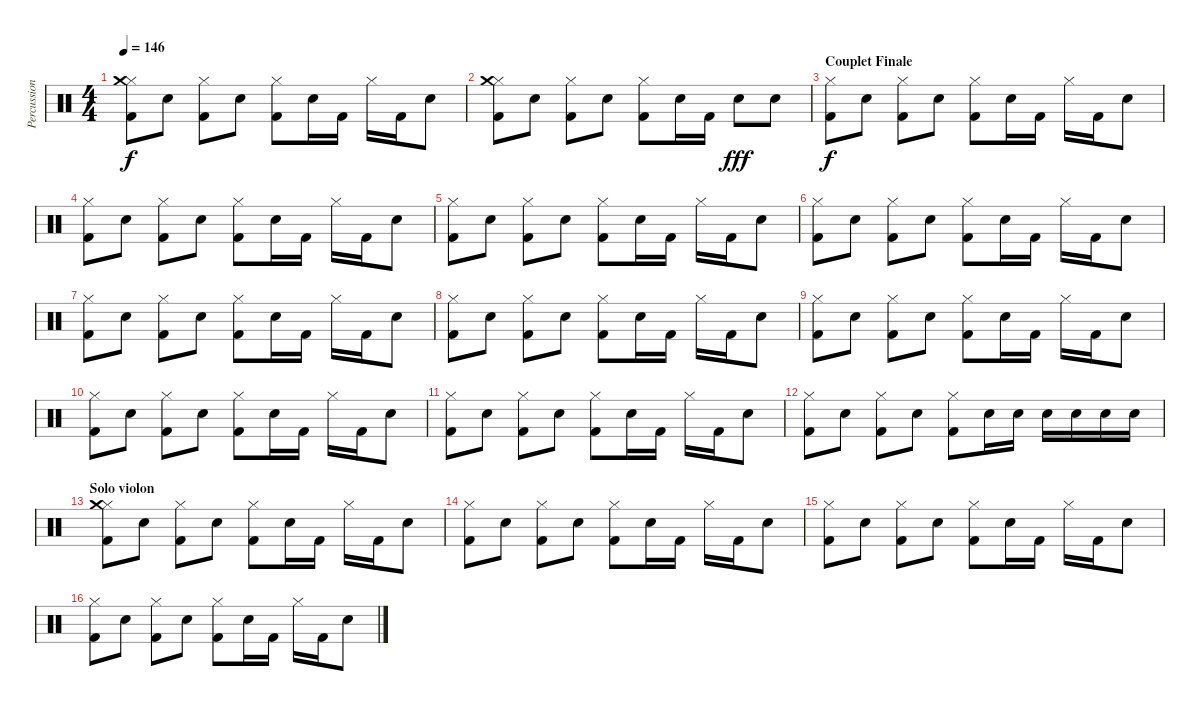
\track ("Percussions" "Percussion") {instrument percussion}
\staff {score}
\articulation defaults
\ts (4 4)
\tempo 146
\clef neutral
\ks c
("Hi-Hat (closed)" "Crash medium (hit)" "Kick (hit) 2").8{dy f} "Electric Snare (hit)".8 ("Hi-Hat (closed)" "Kick (hit) 2").8 "Electric Snare (hit)".8 ("Hi-Hat (closed)" "Kick (hit) 2").8 "Electric Snare (hit)".16 "Kick (hit) 2".16 "Hi-Hat (closed)".16 "Kick (hit) 2".16 "Electric Snare (hit)".8 |
("Hi-Hat (closed)" "Crash medium (hit)" "Kick (hit) 2").8 "Electric Snare (hit)".8 ("Hi-Hat (closed)" "Kick (hit) 2").8 "Electric Snare (hit)".8 ("Hi-Hat (closed)" "Kick (hit) 2").8 "Electric Snare (hit)".16 "Kick (hit) 2".16 "Electric Snare (hit)".8{dy fff} "Electric Snare (hit)".8 |
\section ("" "Couplet Finale")
("Hi-Hat (closed)" "Kick (hit) 2").8{dy f} "Electric Snare (hit)".8 ("Hi-Hat (closed)" "Kick (hit) 2").8 "Electric Snare (hit)".8 ("Hi-Hat (closed)" "Kick (hit) 2").8 "Electric Snare (hit)".16 "Kick (hit) 2".16 "Hi-Hat (closed)".16 "Kick (hit) 2".16 "Electric Snare (hit)".8 |
("Hi-Hat (closed)" "Kick (hit) 2").8 "Electric Snare (hit)".8 ("Hi-Hat (closed)" "Kick (hit) 2").8 "Electric Snare (hit)".8 ("Hi-Hat (closed)" "Kick (hit) 2").8 "Electric Snare (hit)".16 "Kick (hit) 2".16 "Hi-Hat (closed)".16 "Kick (hit) 2".16 "Electric Snare (hit)".8 |
("Hi-Hat (closed)" "Kick (hit) 2").8 "Electric Snare (hit)".8 ("Hi-Hat (closed)" "Kick (hit) 2").8 "Electric Snare (hit)".8 ("Hi-Hat (closed)" "Kick (hit) 2").8 "Electric Snare (hit)".16 "Kick (hit) 2".16 "Hi-Hat (closed)".16 "Kick (hit) 2".16 "Electric Snare (hit)".8 |
("Hi-Hat (closed)" "Kick (hit) 2").8 "Electric Snare (hit)".8 ("Hi-Hat (closed)" "Kick (hit) 2").8 "Electric Snare (hit)".8 ("Hi-Hat (closed)" "Kick (hit) 2").8 "Electric Snare (hit)".16 "Kick (hit) 2".16 "Hi-Hat (closed)".16 "Kick (hit) 2".16 "Electric Snare (hit)".8 |
("Hi-Hat (closed)" "Kick (hit) 2").8 "Electric Snare (hit)".8 ("Hi-Hat (closed)" "Kick (hit) 2").8 "Electric Snare (hit)".8 ("Hi-Hat (closed)" "Kick (hit) 2").8 "Electric Snare (hit)".16 "Kick (hit) 2".16 "Hi-Hat (closed)".16 "Kick (hit) 2".16 "Electric Snare (hit)".8 |
("Hi-Hat (closed)" "Kick (hit) 2").8 "Electric Snare (hit)".8 ("Hi-Hat (closed)" "Kick (hit) 2").8 "Electric Snare (hit)".8 ("Hi-Hat (closed)" "Kick (hit) 2").8 "Electric Snare (hit)".16 "Kick (hit) 2".16 "Hi-Hat (closed)".16 "Kick (hit) 2".16 "Electric Snare (hit)".8 |
("Hi-Hat (closed)" "Kick (hit) 2").8 "Electric Snare (hit)".8 ("Hi-Hat (closed)" "Kick (hit) 2").8 "Electric Snare (hit)".8 ("Hi-Hat (closed)" "Kick (hit) 2").8 "Electric Snare (hit)".16 "Kick (hit) 2".16 "Hi-Hat (closed)".16 "Kick (hit) 2".16 "Electric Snare (hit)".8 |
("Hi-Hat (closed)" "Kick (hit) 2").8 "Electric Snare (hit)".8 ("Hi-Hat (closed)" "Kick (hit) 2").8 "Electric Snare (hit)".8 ("Hi-Hat (closed)" "Kick (hit) 2").8 "Electric Snare (hit)".16 "Kick (hit) 2".16 "Hi-Hat (closed)".16 "Kick (hit) 2".16 "Electric Snare (hit)".8 |
("Hi-Hat (closed)" "Kick (hit) 2").8 "Electric Snare (hit)".8 ("Hi-Hat (closed)" "Kick (hit) 2").8 "Electric Snare (hit)".8 ("Hi-Hat (closed)" "Kick (hit) 2").8 "Electric Snare (hit)".16 "Kick (hit) 2".16 "Hi-Hat (closed)".16 "Kick (hit) 2".16 "Electric Snare (hit)".8 |
("Hi-Hat (closed)" "Kick (hit) 2").8 "Electric Snare (hit)".8 ("Hi-Hat (closed)" "Kick (hit) 2").8 "Electric Snare (hit)".8 ("Hi-Hat (closed)" "Kick (hit) 2").8 "Electric Snare (hit)".16 "Electric Snare (hit)".16 "Electric Snare (hit)".16 "Electric Snare (hit)".16 "Electric Snare (hit)".16 "Electric Snare (hit)".16 |
\section ("" "Solo violon")
("Hi-Hat (closed)" "Crash medium (hit)" "Kick (hit) 2").8 "Electric Snare (hit)".8 ("Hi-Hat (closed)" "Kick (hit) 2").8 "Electric Snare (hit)".8 ("Hi-Hat (closed)" "Kick (hit) 2").8 "Electric Snare (hit)".16 "Kick (hit) 2".16 "Hi-Hat (closed)".16 "Kick (hit) 2".16 "Electric Snare (hit)".8 |
("Hi-Hat (closed)" "Kick (hit) 2").8 "Electric Snare (hit)".8 ("Hi-Hat (closed)" "Kick (hit) 2").8 "Electric Snare (hit)".8 ("Hi-Hat (closed)" "Kick (hit) 2").8 "Electric Snare (hit)".16 "Kick (hit) 2".16 "Hi-Hat (closed)".16 "Kick (hit) 2".16 "Electric Snare (hit)".8 |
("Hi-Hat (closed)" "Kick (hit) 2").8 "Electric Snare (hit)".8 ("Hi-Hat (closed)" "Kick (hit) 2").8 "Electric Snare (hit)".8 ("Hi-Hat (closed)" "Kick (hit) 2").8 "Electric Snare (hit)".16 "Kick (hit) 2".16 "Hi-Hat (closed)".16 "Kick (hit) 2".16 "Electric Snare (hit)".8 |
("Hi-Hat (closed)" "Kick (hit) 2").8 "Electric Snare (hit)".8 ("Hi-Hat (closed)" "Kick (hit) 2").8 "Electric Snare (hit)".8 ("Hi-Hat (closed)" "Kick (hit) 2").8 "Electric Snare (hit)".16 "Kick (hit) 2".16 "Hi-Hat (closed)".16 "Kick (hit) 2".16 "Electric Snare (hit)".8
